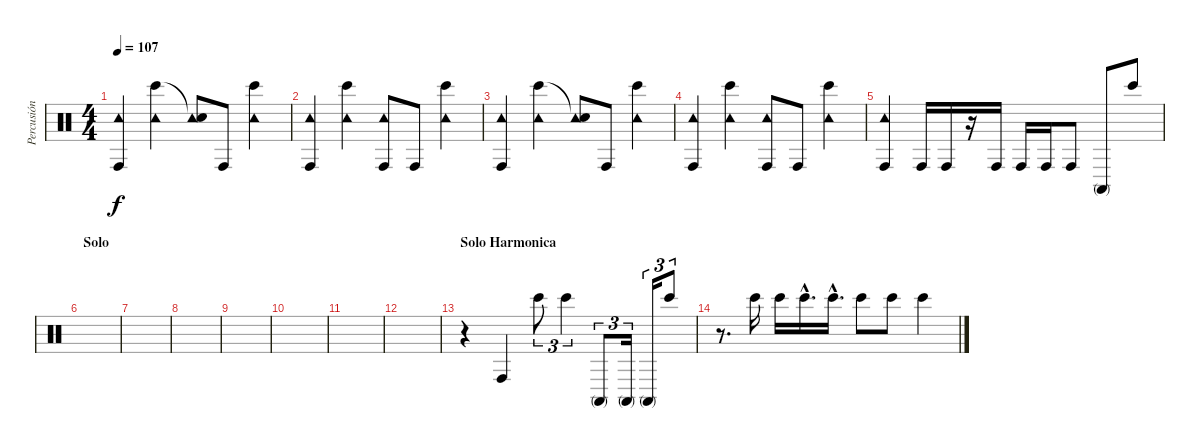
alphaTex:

\track ("Percusión" "Percusión") {instrument percussion}
\staff {score}
\articulation defaults
\ts (4 4)
\tempo 107
\clef neutral
\ks c
("Tambourine (hit)" "Conga high (hit)").4{dy f} ("Tambourine (hit)" "Bongo High (hit)").4 ("Tambourine (hit)" "Snare (hit)"{t}).8 "Conga high (hit)".8 ("Tambourine (hit)" "Bongo High (hit)").4 |
("Tambourine (hit)" "Conga high (hit)").4 ("Tambourine (hit)" "Bongo High (hit)").4 ("Tambourine (hit)" "Conga high (hit)").8 "Conga high (hit)".8 ("Tambourine (hit)" "Bongo High (hit)").4 |
("Tambourine (hit)" "Conga high (hit)").4 ("Tambourine (hit)" "Bongo High (hit)").4 ("Tambourine (hit)" "Snare (hit)"{t}).8 "Conga high (hit)".8 ("Tambourine (hit)" "Bongo High (hit)").4 |
("Tambourine (hit)" "Conga high (hit)").4 ("Tambourine (hit)" "Bongo High (hit)").4 ("Tambourine (hit)" "Conga high (hit)").8 "Conga high (hit)".8 ("Tambourine (hit)" "Bongo High (hit)").4 |
("Tambourine (hit)" "Conga high (hit)").4 "Conga high (hit)".16 "Conga high (hit)".16 r.16 "Conga high (hit)".16 "Conga high (hit)".16 "Conga high (hit)".16 "Conga high (hit)".8 "Conga high (mute)".8 "Bongo High (hit)".8 |
\section ("" "Solo")
|
|
|
|
|
|
|
\section ("" "Solo Harmonica")
r.4 "Conga high (hit)".4 "Bongo High (hit)".8{tu (3 2)} "Bongo High (hit)".4{tu (3 2)} "Conga high (mute)".8{tu (3 2)} "Conga high (mute)".16{tu (3 2)} "Conga high (mute)".16{tu (3 2)} "Bongo High (hit)".8{tu (3 2)} |
r.8{d} "Bongo High (hit)".16 "Bongo High (hit)".16 "Bongo High (hit)"{hac}.16{d} "Bongo High (hit)"{hac}.16{d} "Bongo High (hit)".8 "Bongo High (hit)".8 "Bongo High (hit)".4
